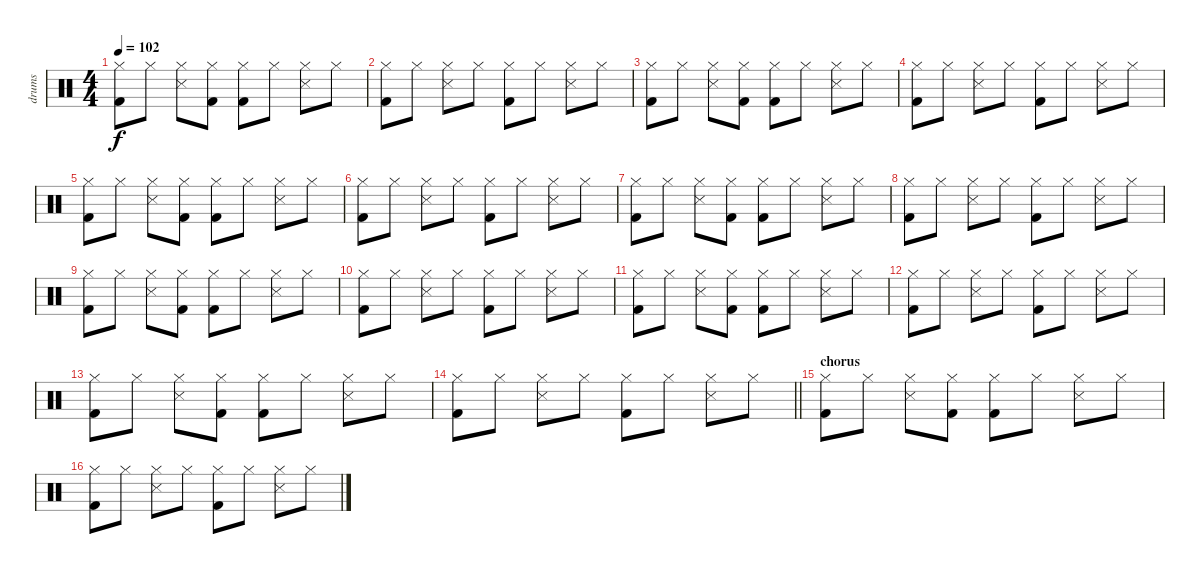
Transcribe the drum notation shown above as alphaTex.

\track ("drums" "drums") {instrument percussion}
\staff {score}
\articulation defaults
\ts (4 4)
\tempo 102
\clef neutral
\ks c
("Hi-Hat (closed)" "Kick (hit) 2").8{dy f} "Hi-Hat (closed)".8 ("Hi-Hat (closed)" "Snare (side stick) 3").8 ("Hi-Hat (closed)" "Kick (hit) 2").8 ("Hi-Hat (closed)" "Kick (hit) 2").8 "Hi-Hat (closed)".8 ("Hi-Hat (closed)" "Snare (side stick) 3").8 "Hi-Hat (closed)".8 |
("Hi-Hat (closed)" "Kick (hit) 2").8 "Hi-Hat (closed)".8 ("Hi-Hat (closed)" "Snare (side stick) 3").8 "Hi-Hat (closed)".8 ("Hi-Hat (closed)" "Kick (hit) 2").8 "Hi-Hat (closed)".8 ("Hi-Hat (closed)" "Snare (side stick) 3").8 "Hi-Hat (closed)".8 |
("Hi-Hat (closed)" "Kick (hit) 2").8 "Hi-Hat (closed)".8 ("Hi-Hat (closed)" "Snare (side stick) 3").8 ("Hi-Hat (closed)" "Kick (hit) 2").8 ("Hi-Hat (closed)" "Kick (hit) 2").8 "Hi-Hat (closed)".8 ("Hi-Hat (closed)" "Snare (side stick) 3").8 "Hi-Hat (closed)".8 |
("Hi-Hat (closed)" "Kick (hit) 2").8 "Hi-Hat (closed)".8 ("Hi-Hat (closed)" "Snare (side stick) 3").8 "Hi-Hat (closed)".8 ("Hi-Hat (closed)" "Kick (hit) 2").8 "Hi-Hat (closed)".8 ("Hi-Hat (closed)" "Snare (side stick) 3").8 "Hi-Hat (closed)".8 |
("Hi-Hat (closed)" "Kick (hit) 2").8 "Hi-Hat (closed)".8 ("Hi-Hat (closed)" "Snare (side stick) 3").8 ("Hi-Hat (closed)" "Kick (hit) 2").8 ("Hi-Hat (closed)" "Kick (hit) 2").8 "Hi-Hat (closed)".8 ("Hi-Hat (closed)" "Snare (side stick) 3").8 "Hi-Hat (closed)".8 |
("Hi-Hat (closed)" "Kick (hit) 2").8 "Hi-Hat (closed)".8 ("Hi-Hat (closed)" "Snare (side stick) 3").8 "Hi-Hat (closed)".8 ("Hi-Hat (closed)" "Kick (hit) 2").8 "Hi-Hat (closed)".8 ("Hi-Hat (closed)" "Snare (side stick) 3").8 "Hi-Hat (closed)".8 |
("Hi-Hat (closed)" "Kick (hit) 2").8 "Hi-Hat (closed)".8 ("Hi-Hat (closed)" "Snare (side stick) 3").8 ("Hi-Hat (closed)" "Kick (hit) 2").8 ("Hi-Hat (closed)" "Kick (hit) 2").8 "Hi-Hat (closed)".8 ("Hi-Hat (closed)" "Snare (side stick) 3").8 "Hi-Hat (closed)".8 |
("Hi-Hat (closed)" "Kick (hit) 2").8 "Hi-Hat (closed)".8 ("Hi-Hat (closed)" "Snare (side stick) 3").8 "Hi-Hat (closed)".8 ("Hi-Hat (closed)" "Kick (hit) 2").8 "Hi-Hat (closed)".8 ("Hi-Hat (closed)" "Snare (side stick) 3").8 "Hi-Hat (closed)".8 |
("Hi-Hat (closed)" "Kick (hit) 2").8 "Hi-Hat (closed)".8 ("Hi-Hat (closed)" "Snare (side stick) 3").8 ("Hi-Hat (closed)" "Kick (hit) 2").8 ("Hi-Hat (closed)" "Kick (hit) 2").8 "Hi-Hat (closed)".8 ("Hi-Hat (closed)" "Snare (side stick) 3").8 "Hi-Hat (closed)".8 |
("Hi-Hat (closed)" "Kick (hit) 2").8 "Hi-Hat (closed)".8 ("Hi-Hat (closed)" "Snare (side stick) 3").8 "Hi-Hat (closed)".8 ("Hi-Hat (closed)" "Kick (hit) 2").8 "Hi-Hat (closed)".8 ("Hi-Hat (closed)" "Snare (side stick) 3").8 "Hi-Hat (closed)".8 |
("Hi-Hat (closed)" "Kick (hit) 2").8 "Hi-Hat (closed)".8 ("Hi-Hat (closed)" "Snare (side stick) 3").8 ("Hi-Hat (closed)" "Kick (hit) 2").8 ("Hi-Hat (closed)" "Kick (hit) 2").8 "Hi-Hat (closed)".8 ("Hi-Hat (closed)" "Snare (side stick) 3").8 "Hi-Hat (closed)".8 |
("Hi-Hat (closed)" "Kick (hit) 2").8 "Hi-Hat (closed)".8 ("Hi-Hat (closed)" "Snare (side stick) 3").8 "Hi-Hat (closed)".8 ("Hi-Hat (closed)" "Kick (hit) 2").8 "Hi-Hat (closed)".8 ("Hi-Hat (closed)" "Snare (side stick) 3").8 "Hi-Hat (closed)".8 |
("Hi-Hat (closed)" "Kick (hit) 2").8 "Hi-Hat (closed)".8 ("Hi-Hat (closed)" "Snare (side stick) 3").8 ("Hi-Hat (closed)" "Kick (hit) 2").8 ("Hi-Hat (closed)" "Kick (hit) 2").8 "Hi-Hat (closed)".8 ("Hi-Hat (closed)" "Snare (side stick) 3").8 "Hi-Hat (closed)".8 |
\barLineRight lightlight
("Hi-Hat (closed)" "Kick (hit) 2").8 "Hi-Hat (closed)".8 ("Hi-Hat (closed)" "Snare (side stick) 3").8 "Hi-Hat (closed)".8 ("Hi-Hat (closed)" "Kick (hit) 2").8 "Hi-Hat (closed)".8 ("Hi-Hat (closed)" "Snare (side stick) 3").8 "Hi-Hat (closed)".8 |
\section ("" "chorus")
("Hi-Hat (closed)" "Kick (hit) 2").8 "Hi-Hat (closed)".8 ("Hi-Hat (closed)" "Snare (side stick) 3").8 ("Hi-Hat (closed)" "Kick (hit) 2").8 ("Hi-Hat (closed)" "Kick (hit) 2").8 "Hi-Hat (closed)".8 ("Hi-Hat (closed)" "Snare (side stick) 3").8 "Hi-Hat (closed)".8 |
("Hi-Hat (closed)" "Kick (hit) 2").8 "Hi-Hat (closed)".8 ("Hi-Hat (closed)" "Snare (side stick) 3").8 "Hi-Hat (closed)".8 ("Hi-Hat (closed)" "Kick (hit) 2").8 "Hi-Hat (closed)".8 ("Hi-Hat (closed)" "Snare (side stick) 3").8 "Hi-Hat (closed)".8
